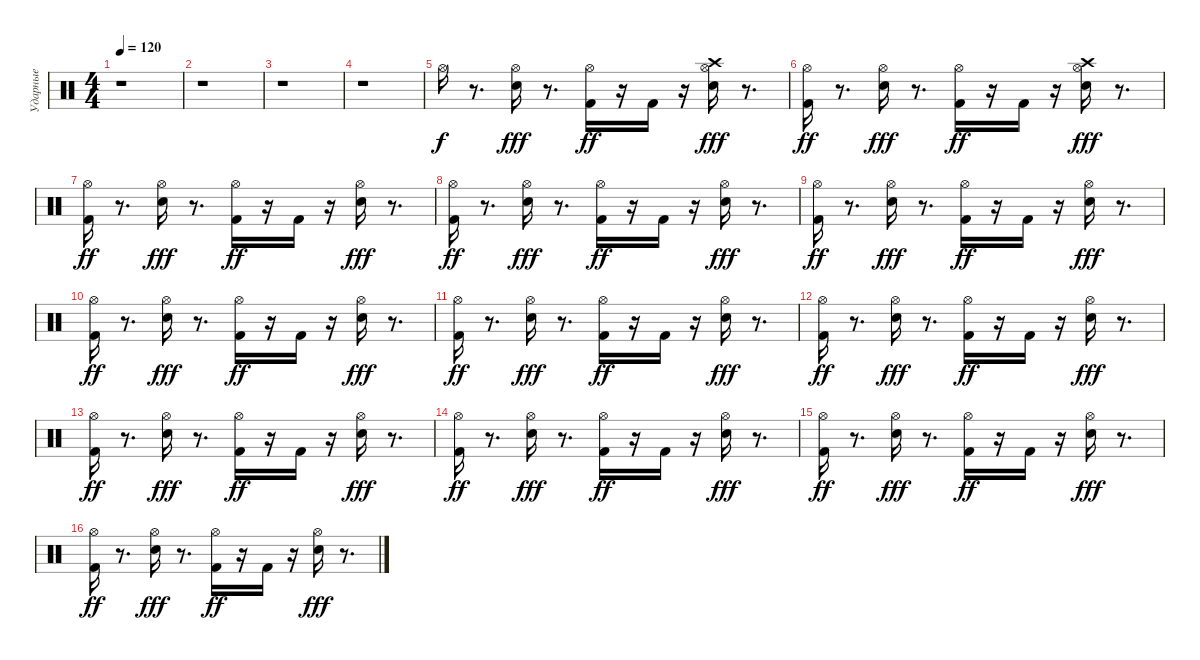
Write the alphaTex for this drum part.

\track ("Ударные" "Ударные") {instrument percussion}
\staff {score}
\articulation defaults
\ts (4 4)
\tempo 120
\clef neutral
\ks c
r.1{dy f} |
r.1 |
r.1 |
r.1 |
"Hi-Hat (open)".16 r.8{d} ("Snare (hit) 2" "Hi-Hat (open)").16{dy fff} r.8{d} ("Kick (hit) 2" "Hi-Hat (open)").16{dy ff} r.16 "Kick (hit) 2".16 r.16 ("Snare (hit) 2" "Hi-Hat (open)" "Crash high (hit)").16{dy fff} r.8{d} |
("Kick (hit) 2" "Hi-Hat (open)").16{dy ff} r.8{d} ("Snare (hit) 2" "Hi-Hat (open)").16{dy fff} r.8{d} ("Kick (hit) 2" "Hi-Hat (open)").16{dy ff} r.16 "Kick (hit) 2".16 r.16 ("Snare (hit) 2" "Hi-Hat (open)" "Crash high (hit)").16{dy fff} r.8{d} |
("Kick (hit) 2" "Hi-Hat (open)").16{dy ff} r.8{d} ("Snare (hit) 2" "Hi-Hat (open)").16{dy fff} r.8{d} ("Kick (hit) 2" "Hi-Hat (open)").16{dy ff} r.16 "Kick (hit) 2".16 r.16 ("Snare (hit) 2" "Hi-Hat (open)").16{dy fff} r.8{d} |
("Kick (hit) 2" "Hi-Hat (open)").16{dy ff} r.8{d} ("Snare (hit) 2" "Hi-Hat (open)").16{dy fff} r.8{d} ("Kick (hit) 2" "Hi-Hat (open)").16{dy ff} r.16 "Kick (hit) 2".16 r.16 ("Snare (hit) 2" "Hi-Hat (open)").16{dy fff} r.8{d} |
("Kick (hit) 2" "Hi-Hat (open)").16{dy ff} r.8{d} ("Snare (hit) 2" "Hi-Hat (open)").16{dy fff} r.8{d} ("Kick (hit) 2" "Hi-Hat (open)").16{dy ff} r.16 "Kick (hit) 2".16 r.16 ("Snare (hit) 2" "Hi-Hat (open)").16{dy fff} r.8{d} |
("Kick (hit) 2" "Hi-Hat (open)").16{dy ff} r.8{d} ("Snare (hit) 2" "Hi-Hat (open)").16{dy fff} r.8{d} ("Kick (hit) 2" "Hi-Hat (open)").16{dy ff} r.16 "Kick (hit) 2".16 r.16 ("Snare (hit) 2" "Hi-Hat (open)").16{dy fff} r.8{d} |
("Kick (hit) 2" "Hi-Hat (open)").16{dy ff} r.8{d} ("Snare (hit) 2" "Hi-Hat (open)").16{dy fff} r.8{d} ("Kick (hit) 2" "Hi-Hat (open)").16{dy ff} r.16 "Kick (hit) 2".16 r.16 ("Snare (hit) 2" "Hi-Hat (open)").16{dy fff} r.8{d} |
("Kick (hit) 2" "Hi-Hat (open)").16{dy ff} r.8{d} ("Snare (hit) 2" "Hi-Hat (open)").16{dy fff} r.8{d} ("Kick (hit) 2" "Hi-Hat (open)").16{dy ff} r.16 "Kick (hit) 2".16 r.16 ("Snare (hit) 2" "Hi-Hat (open)").16{dy fff} r.8{d} |
("Kick (hit) 2" "Hi-Hat (open)").16{dy ff} r.8{d} ("Snare (hit) 2" "Hi-Hat (open)").16{dy fff} r.8{d} ("Kick (hit) 2" "Hi-Hat (open)").16{dy ff} r.16 "Kick (hit) 2".16 r.16 ("Snare (hit) 2" "Hi-Hat (open)").16{dy fff} r.8{d} |
("Kick (hit) 2" "Hi-Hat (open)").16{dy ff} r.8{d} ("Snare (hit) 2" "Hi-Hat (open)").16{dy fff} r.8{d} ("Kick (hit) 2" "Hi-Hat (open)").16{dy ff} r.16 "Kick (hit) 2".16 r.16 ("Snare (hit) 2" "Hi-Hat (open)").16{dy fff} r.8{d} |
("Kick (hit) 2" "Hi-Hat (open)").16{dy ff} r.8{d} ("Snare (hit) 2" "Hi-Hat (open)").16{dy fff} r.8{d} ("Kick (hit) 2" "Hi-Hat (open)").16{dy ff} r.16 "Kick (hit) 2".16 r.16 ("Snare (hit) 2" "Hi-Hat (open)").16{dy fff} r.8{d} |
("Kick (hit) 2" "Hi-Hat (open)").16{dy ff} r.8{d} ("Snare (hit) 2" "Hi-Hat (open)").16{dy fff} r.8{d} ("Kick (hit) 2" "Hi-Hat (open)").16{dy ff} r.16 "Kick (hit) 2".16 r.16 ("Snare (hit) 2" "Hi-Hat (open)").16{dy fff} r.8{d}
